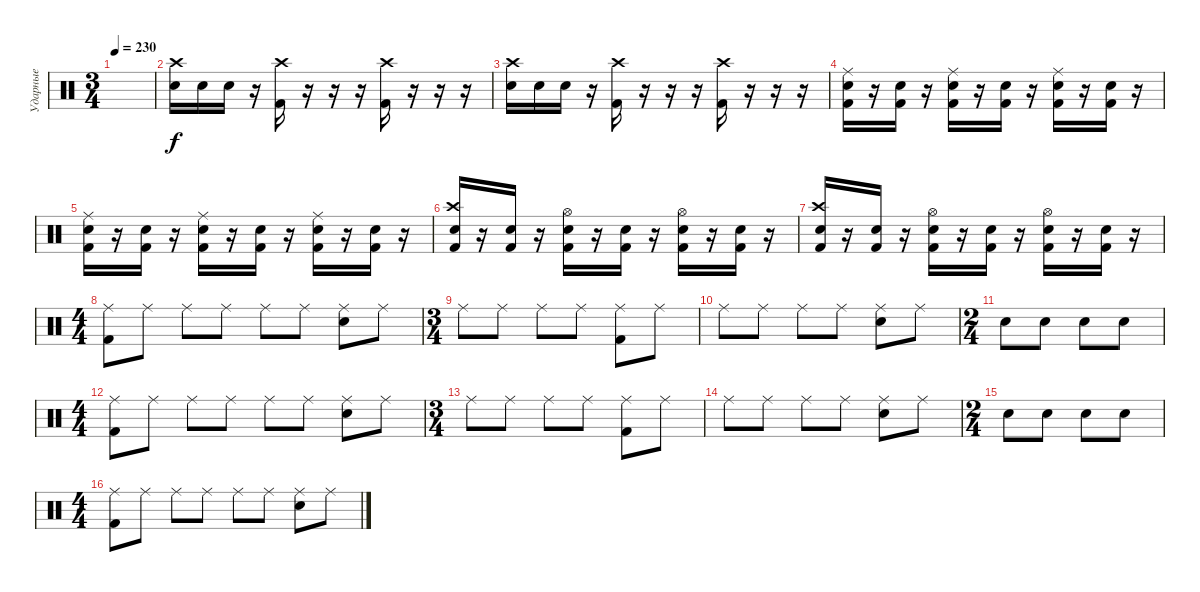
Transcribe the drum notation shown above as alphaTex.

\track ("Ударные" "Ударные") {instrument percussion}
\staff {score}
\articulation defaults
\ts (3 4)
\tempo 230
\clef neutral
\ks c
|
("Electric Snare (hit)" "Crash high (hit)").16 "Electric Snare (hit)".16 "Electric Snare (hit)".16 r.16 ("Kick (hit) 2" "Crash high (hit)").16 r.16 r.16 r.16 ("Kick (hit) 2" "Crash high (hit)").16 r.16 r.16 r.16 |
("Electric Snare (hit)" "Crash high (hit)").16 "Electric Snare (hit)".16 "Electric Snare (hit)".16 r.16 ("Kick (hit) 2" "Crash high (hit)").16 r.16 r.16 r.16 ("Kick (hit) 2" "Crash high (hit)").16 r.16 r.16 r.16 |
("Electric Snare (hit)" "Kick (hit) 2" "Ride (middle)").16 r.16 ("Electric Snare (hit)" "Kick (hit) 2").16 r.16 ("Electric Snare (hit)" "Kick (hit) 2" "Ride (middle)").16 r.16 ("Electric Snare (hit)" "Kick (hit) 2").16 r.16 ("Electric Snare (hit)" "Kick (hit) 2" "Ride (middle)").16 r.16 ("Electric Snare (hit)" "Kick (hit) 2").16 r.16 |
("Electric Snare (hit)" "Kick (hit) 2" "Ride (middle)").16 r.16 ("Electric Snare (hit)" "Kick (hit) 2").16 r.16 ("Electric Snare (hit)" "Kick (hit) 2" "Ride (middle)").16 r.16 ("Electric Snare (hit)" "Kick (hit) 2").16 r.16 ("Electric Snare (hit)" "Kick (hit) 2" "Ride (middle)").16 r.16 ("Electric Snare (hit)" "Kick (hit) 2").16 r.16 |
("Electric Snare (hit)" "Kick (hit) 2" "Crash high (hit)").16 r.16 ("Electric Snare (hit)" "Kick (hit) 2").16 r.16 ("Electric Snare (hit)" "Kick (hit) 2" "Hi-Hat (open)").16 r.16 ("Electric Snare (hit)" "Kick (hit) 2").16 r.16 ("Electric Snare (hit)" "Kick (hit) 2" "Hi-Hat (open)").16 r.16 ("Electric Snare (hit)" "Kick (hit) 2").16 r.16 |
("Electric Snare (hit)" "Kick (hit) 2" "Crash high (hit)").16 r.16 ("Electric Snare (hit)" "Kick (hit) 2").16 r.16 ("Electric Snare (hit)" "Kick (hit) 2" "Hi-Hat (open)").16 r.16 ("Electric Snare (hit)" "Kick (hit) 2").16 r.16 ("Electric Snare (hit)" "Kick (hit) 2" "Hi-Hat (open)").16 r.16 ("Electric Snare (hit)" "Kick (hit) 2").16 r.16 |
\ts (4 4)
("Ride (middle)" "Kick (hit) 2").8 "Ride (middle)".8 "Ride (middle)".8 "Ride (middle)".8 "Ride (middle)".8 "Ride (middle)".8 ("Ride (middle)" "Electric Snare (hit)").8 "Ride (middle)".8 |
\ts (3 4)
"Ride (middle)".8 "Ride (middle)".8 "Ride (middle)".8 "Ride (middle)".8 ("Ride (middle)" "Kick (hit) 2").8 "Ride (middle)".8 |
"Ride (middle)".8 "Ride (middle)".8 "Ride (middle)".8 "Ride (middle)".8 ("Ride (middle)" "Electric Snare (hit)").8 "Ride (middle)".8 |
\ts (2 4)
"Electric Snare (hit)".8 "Electric Snare (hit)".8 "Electric Snare (hit)".8 "Electric Snare (hit)".8 |
\ts (4 4)
("Ride (middle)" "Kick (hit) 2").8 "Ride (middle)".8 "Ride (middle)".8 "Ride (middle)".8 "Ride (middle)".8 "Ride (middle)".8 ("Ride (middle)" "Electric Snare (hit)").8 "Ride (middle)".8 |
\ts (3 4)
"Ride (middle)".8 "Ride (middle)".8 "Ride (middle)".8 "Ride (middle)".8 ("Ride (middle)" "Kick (hit) 2").8 "Ride (middle)".8 |
"Ride (middle)".8 "Ride (middle)".8 "Ride (middle)".8 "Ride (middle)".8 ("Ride (middle)" "Electric Snare (hit)").8 "Ride (middle)".8 |
\ts (2 4)
"Electric Snare (hit)".8 "Electric Snare (hit)".8 "Electric Snare (hit)".8 "Electric Snare (hit)".8 |
\ts (4 4)
("Ride (middle)" "Kick (hit) 2").8 "Ride (middle)".8 "Ride (middle)".8 "Ride (middle)".8 "Ride (middle)".8 "Ride (middle)".8 ("Ride (middle)" "Electric Snare (hit)").8 "Ride (middle)".8
